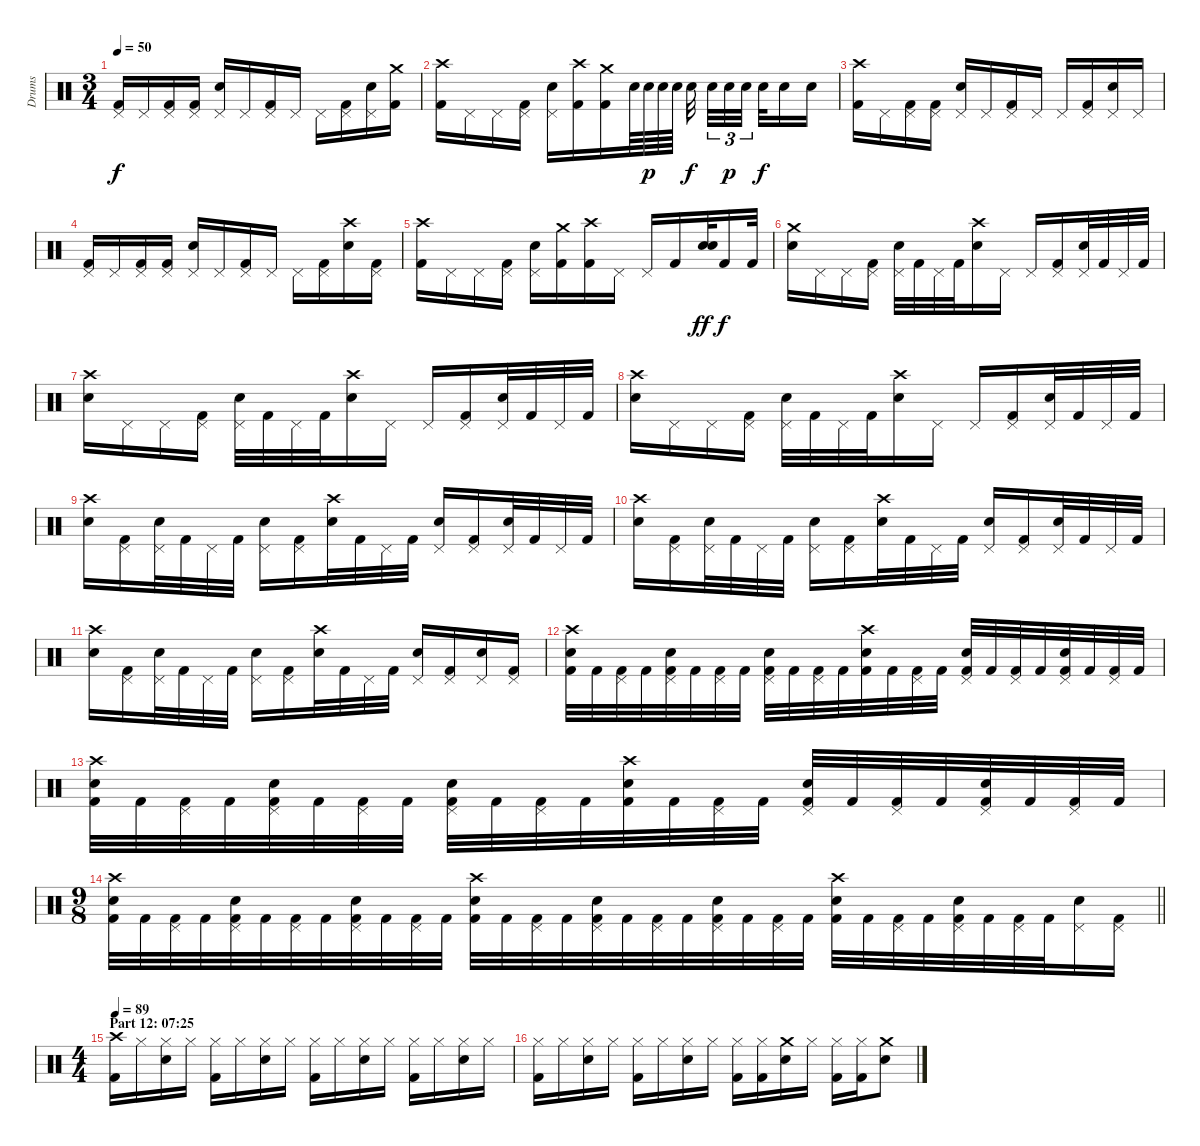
\track ("Drums" "Drums") {instrument percussion}
\staff {score}
\articulation defaults
\ts (3 4)
\tempo 50
\clef neutral
\ks c
("Pedal Hi-Hat (hit)" "Kick (hit) 2").16{dy f} "Pedal Hi-Hat (hit)".16 ("Pedal Hi-Hat (hit)" "Kick (hit) 2").16 ("Pedal Hi-Hat (hit)" "Kick (hit) 2").16 ("Pedal Hi-Hat (hit)" "Electric Snare (hit)").16 "Pedal Hi-Hat (hit)".16 ("Pedal Hi-Hat (hit)" "Kick (hit) 2").16 "Pedal Hi-Hat (hit)".16 "Pedal Hi-Hat (hit)".16 ("Pedal Hi-Hat (hit)" "Kick (hit) 2").16 ("Pedal Hi-Hat (hit)" "Electric Snare (hit)").16 ("Crash medium (hit)" "Kick (hit) 2").16 |
("Crash high (hit)" "Kick (hit) 2").16 "Pedal Hi-Hat (hit)".16 "Pedal Hi-Hat (hit)".16 ("Pedal Hi-Hat (hit)" "Kick (hit) 2").16 ("Pedal Hi-Hat (hit)" "Electric Snare (hit)").16 ("Crash high (hit)" "Kick (hit) 2").16 ("Crash medium (hit)" "Kick (hit) 2").16 "Electric Snare (hit)".64 "Electric Snare (hit)".64{dy p} "Electric Snare (hit)".64 "Electric Snare (hit)".64 "Electric Snare (hit)".32{dy f beam splitsecondary} "Electric Snare (hit)".32{tu (3 2)} "Electric Snare (hit)".32{tu (3 2) dy p} "Electric Snare (hit)".32{tu (3 2) beam splitsecondary} "Electric Snare (hit)".32{dy f} "Electric Snare (hit)".16 "Electric Snare (hit)".16 |
("Crash high (hit)" "Kick (hit) 2").16 "Pedal Hi-Hat (hit)".16 ("Pedal Hi-Hat (hit)" "Kick (hit) 2").16 ("Pedal Hi-Hat (hit)" "Kick (hit) 2").16 ("Pedal Hi-Hat (hit)" "Electric Snare (hit)").16 "Pedal Hi-Hat (hit)".16 ("Pedal Hi-Hat (hit)" "Kick (hit) 2").16 "Pedal Hi-Hat (hit)".16 "Pedal Hi-Hat (hit)".16 ("Pedal Hi-Hat (hit)" "Kick (hit) 2").16 ("Pedal Hi-Hat (hit)" "Electric Snare (hit)").16 "Pedal Hi-Hat (hit)".16 |
("Pedal Hi-Hat (hit)" "Kick (hit) 2").16 "Pedal Hi-Hat (hit)".16 ("Pedal Hi-Hat (hit)" "Kick (hit) 2").16 ("Pedal Hi-Hat (hit)" "Kick (hit) 2").16 ("Pedal Hi-Hat (hit)" "Electric Snare (hit)").16 "Pedal Hi-Hat (hit)".16 ("Pedal Hi-Hat (hit)" "Kick (hit) 2").16 "Pedal Hi-Hat (hit)".16 "Pedal Hi-Hat (hit)".16 ("Pedal Hi-Hat (hit)" "Kick (hit) 2").16 ("Crash high (hit)" "Electric Snare (hit)").16 ("Pedal Hi-Hat (hit)" "Kick (hit) 2").16 |
("Crash high (hit)" "Kick (hit) 2").16 "Pedal Hi-Hat (hit)".16 "Pedal Hi-Hat (hit)".16 ("Pedal Hi-Hat (hit)" "Kick (hit) 2").16 ("Pedal Hi-Hat (hit)" "Electric Snare (hit)").16 ("Crash medium (hit)" "Kick (hit) 2").16 ("Crash high (hit)" "Kick (hit) 2").16 "Pedal Hi-Hat (hit)".16 "Pedal Hi-Hat (hit)".16 "Kick (hit) 2".16 ("Electric Snare (hit)" "Electric Snare (hit)").32{bd 30 dy ff} "Kick (hit) 2".16{dy f} "Kick (hit) 2".32 |
("Crash medium (hit)" "Electric Snare (hit)").16 "Pedal Hi-Hat (hit)".16 "Pedal Hi-Hat (hit)".16 ("Pedal Hi-Hat (hit)" "Kick (hit) 2").16 ("Pedal Hi-Hat (hit)" "Electric Snare (hit)").32 "Kick (hit) 2".32 "Pedal Hi-Hat (hit)".32 "Kick (hit) 2".32 ("Crash high (hit)" "Electric Snare (hit)").16 "Pedal Hi-Hat (hit)".16 "Pedal Hi-Hat (hit)".16 ("Pedal Hi-Hat (hit)" "Kick (hit) 2").16 ("Pedal Hi-Hat (hit)" "Electric Snare (hit)").32 "Kick (hit) 2".32 "Pedal Hi-Hat (hit)".32 "Kick (hit) 2".32 |
("Crash high (hit)" "Electric Snare (hit)").16 "Pedal Hi-Hat (hit)".16 "Pedal Hi-Hat (hit)".16 ("Pedal Hi-Hat (hit)" "Kick (hit) 2").16 ("Pedal Hi-Hat (hit)" "Electric Snare (hit)").32 "Kick (hit) 2".32 "Pedal Hi-Hat (hit)".32 "Kick (hit) 2".32 ("Crash high (hit)" "Electric Snare (hit)").16 "Pedal Hi-Hat (hit)".16 "Pedal Hi-Hat (hit)".16 ("Pedal Hi-Hat (hit)" "Kick (hit) 2").16 ("Pedal Hi-Hat (hit)" "Electric Snare (hit)").32 "Kick (hit) 2".32 "Pedal Hi-Hat (hit)".32 "Kick (hit) 2".32 |
("Crash high (hit)" "Electric Snare (hit)").16 "Pedal Hi-Hat (hit)".16 "Pedal Hi-Hat (hit)".16 ("Pedal Hi-Hat (hit)" "Kick (hit) 2").16 ("Pedal Hi-Hat (hit)" "Electric Snare (hit)").32 "Kick (hit) 2".32 "Pedal Hi-Hat (hit)".32 "Kick (hit) 2".32 ("Crash high (hit)" "Electric Snare (hit)").16 "Pedal Hi-Hat (hit)".16 "Pedal Hi-Hat (hit)".16 ("Pedal Hi-Hat (hit)" "Kick (hit) 2").16 ("Pedal Hi-Hat (hit)" "Electric Snare (hit)").32 "Kick (hit) 2".32 "Pedal Hi-Hat (hit)".32 "Kick (hit) 2".32 |
("Crash high (hit)" "Electric Snare (hit)").16 ("Pedal Hi-Hat (hit)" "Kick (hit) 2").16 ("Pedal Hi-Hat (hit)" "Electric Snare (hit)").32 "Kick (hit) 2".32 "Pedal Hi-Hat (hit)".32 "Kick (hit) 2".32 ("Pedal Hi-Hat (hit)" "Electric Snare (hit)").16 ("Pedal Hi-Hat (hit)" "Kick (hit) 2").16 ("Crash high (hit)" "Electric Snare (hit)").32 "Kick (hit) 2".32 "Pedal Hi-Hat (hit)".32 "Kick (hit) 2".32 ("Pedal Hi-Hat (hit)" "Electric Snare (hit)").16 ("Pedal Hi-Hat (hit)" "Kick (hit) 2").16 ("Pedal Hi-Hat (hit)" "Electric Snare (hit)").32 "Kick (hit) 2".32 "Pedal Hi-Hat (hit)".32 "Kick (hit) 2".32 |
("Crash high (hit)" "Electric Snare (hit)").16 ("Pedal Hi-Hat (hit)" "Kick (hit) 2").16 ("Pedal Hi-Hat (hit)" "Electric Snare (hit)").32 "Kick (hit) 2".32 "Pedal Hi-Hat (hit)".32 "Kick (hit) 2".32 ("Pedal Hi-Hat (hit)" "Electric Snare (hit)").16 ("Pedal Hi-Hat (hit)" "Kick (hit) 2").16 ("Crash high (hit)" "Electric Snare (hit)").32 "Kick (hit) 2".32 "Pedal Hi-Hat (hit)".32 "Kick (hit) 2".32 ("Pedal Hi-Hat (hit)" "Electric Snare (hit)").16 ("Pedal Hi-Hat (hit)" "Kick (hit) 2").16 ("Pedal Hi-Hat (hit)" "Electric Snare (hit)").32 "Kick (hit) 2".32 "Pedal Hi-Hat (hit)".32 "Kick (hit) 2".32 |
("Crash high (hit)" "Electric Snare (hit)").16 ("Pedal Hi-Hat (hit)" "Kick (hit) 2").16 ("Pedal Hi-Hat (hit)" "Electric Snare (hit)").32 "Kick (hit) 2".32 "Pedal Hi-Hat (hit)".32 "Kick (hit) 2".32 ("Pedal Hi-Hat (hit)" "Electric Snare (hit)").16 ("Pedal Hi-Hat (hit)" "Kick (hit) 2").16 ("Crash high (hit)" "Electric Snare (hit)").32 "Kick (hit) 2".32 "Pedal Hi-Hat (hit)".32 "Kick (hit) 2".32 ("Pedal Hi-Hat (hit)" "Electric Snare (hit)").16 ("Pedal Hi-Hat (hit)" "Kick (hit) 2").16 ("Pedal Hi-Hat (hit)" "Electric Snare (hit)").16 ("Pedal Hi-Hat (hit)" "Kick (hit) 2").16 |
("Crash high (hit)" "Electric Snare (hit)" "Kick (hit) 2").32 "Kick (hit) 2".32 ("Pedal Hi-Hat (hit)" "Kick (hit) 2").32 "Kick (hit) 2".32 ("Pedal Hi-Hat (hit)" "Electric Snare (hit)" "Kick (hit) 2").32 "Kick (hit) 2".32 ("Pedal Hi-Hat (hit)" "Kick (hit) 2").32 "Kick (hit) 2".32 ("Pedal Hi-Hat (hit)" "Electric Snare (hit)" "Kick (hit) 2").32 "Kick (hit) 2".32 ("Pedal Hi-Hat (hit)" "Kick (hit) 2").32 "Kick (hit) 2".32 ("Crash high (hit)" "Electric Snare (hit)" "Kick (hit) 2").32 "Kick (hit) 2".32 ("Pedal Hi-Hat (hit)" "Kick (hit) 2").32 "Kick (hit) 2".32 ("Pedal Hi-Hat (hit)" "Electric Snare (hit)" "Kick (hit) 2").32 "Kick (hit) 2".32 ("Pedal Hi-Hat (hit)" "Kick (hit) 2").32 "Kick (hit) 2".32 ("Pedal Hi-Hat (hit)" "Electric Snare (hit)" "Kick (hit) 2").32 "Kick (hit) 2".32 ("Pedal Hi-Hat (hit)" "Kick (hit) 2").32 "Kick (hit) 2".32 |
("Crash high (hit)" "Electric Snare (hit)" "Kick (hit) 2").32 "Kick (hit) 2".32 ("Pedal Hi-Hat (hit)" "Kick (hit) 2").32 "Kick (hit) 2".32 ("Pedal Hi-Hat (hit)" "Electric Snare (hit)" "Kick (hit) 2").32 "Kick (hit) 2".32 ("Pedal Hi-Hat (hit)" "Kick (hit) 2").32 "Kick (hit) 2".32 ("Pedal Hi-Hat (hit)" "Electric Snare (hit)" "Kick (hit) 2").32 "Kick (hit) 2".32 ("Pedal Hi-Hat (hit)" "Kick (hit) 2").32 "Kick (hit) 2".32 ("Crash high (hit)" "Electric Snare (hit)" "Kick (hit) 2").32 "Kick (hit) 2".32 ("Pedal Hi-Hat (hit)" "Kick (hit) 2").32 "Kick (hit) 2".32 ("Pedal Hi-Hat (hit)" "Electric Snare (hit)" "Kick (hit) 2").32 "Kick (hit) 2".32 ("Pedal Hi-Hat (hit)" "Kick (hit) 2").32 "Kick (hit) 2".32 ("Pedal Hi-Hat (hit)" "Electric Snare (hit)" "Kick (hit) 2").32 "Kick (hit) 2".32 ("Pedal Hi-Hat (hit)" "Kick (hit) 2").32 "Kick (hit) 2".32 |
\ts (9 8)
\barLineRight lightlight
("Crash high (hit)" "Electric Snare (hit)" "Kick (hit) 2").32 "Kick (hit) 2".32 ("Pedal Hi-Hat (hit)" "Kick (hit) 2").32 "Kick (hit) 2".32 ("Pedal Hi-Hat (hit)" "Electric Snare (hit)" "Kick (hit) 2").32 "Kick (hit) 2".32 ("Pedal Hi-Hat (hit)" "Kick (hit) 2").32 "Kick (hit) 2".32 ("Pedal Hi-Hat (hit)" "Electric Snare (hit)" "Kick (hit) 2").32 "Kick (hit) 2".32 ("Pedal Hi-Hat (hit)" "Kick (hit) 2").32 "Kick (hit) 2".32 ("Crash high (hit)" "Electric Snare (hit)" "Kick (hit) 2").32 "Kick (hit) 2".32 ("Pedal Hi-Hat (hit)" "Kick (hit) 2").32 "Kick (hit) 2".32 ("Pedal Hi-Hat (hit)" "Electric Snare (hit)" "Kick (hit) 2").32 "Kick (hit) 2".32 ("Pedal Hi-Hat (hit)" "Kick (hit) 2").32 "Kick (hit) 2".32 ("Pedal Hi-Hat (hit)" "Electric Snare (hit)" "Kick (hit) 2").32 "Kick (hit) 2".32 ("Pedal Hi-Hat (hit)" "Kick (hit) 2").32 "Kick (hit) 2".32 ("Crash high (hit)" "Electric Snare (hit)" "Kick (hit) 2").32 "Kick (hit) 2".32 ("Pedal Hi-Hat (hit)" "Kick (hit) 2").32 "Kick (hit) 2".32 ("Pedal Hi-Hat (hit)" "Electric Snare (hit)" "Kick (hit) 2").32 "Kick (hit) 2".32 ("Pedal Hi-Hat (hit)" "Kick (hit) 2").32 "Kick (hit) 2".32 ("Pedal Hi-Hat (hit)" "Electric Snare (hit)").16 ("Pedal Hi-Hat (hit)" "Kick (hit) 2").16 |
\ts (4 4)
\section ("" "Part 12: 07:25")
\tempo 89
("Crash high (hit)" "Kick (hit) 2").16 "Hi-Hat (closed)".16 ("Hi-Hat (closed)" "Electric Snare (hit)").16 "Hi-Hat (closed)".16 ("Hi-Hat (closed)" "Kick (hit) 2").16 "Hi-Hat (closed)".16 ("Hi-Hat (closed)" "Electric Snare (hit)").16 "Hi-Hat (closed)".16 ("Hi-Hat (closed)" "Kick (hit) 2").16 "Hi-Hat (closed)".16 ("Hi-Hat (closed)" "Electric Snare (hit)").16 "Hi-Hat (closed)".16 ("Hi-Hat (closed)" "Kick (hit) 2").16 "Hi-Hat (closed)".16 ("Hi-Hat (closed)" "Electric Snare (hit)").16 "Hi-Hat (closed)".16 |
("Hi-Hat (closed)" "Kick (hit) 2").16 "Hi-Hat (closed)".16 ("Hi-Hat (closed)" "Electric Snare (hit)").16 "Hi-Hat (closed)".16 ("Hi-Hat (closed)" "Kick (hit) 2").16 "Hi-Hat (closed)".16 ("Hi-Hat (closed)" "Electric Snare (hit)").16 "Hi-Hat (closed)".16 ("Hi-Hat (closed)" "Kick (hit) 2").16 ("Hi-Hat (closed)" "Kick (hit) 2").16 ("Crash medium (hit)" "Electric Snare (hit)").16 "Hi-Hat (closed)".16 ("Hi-Hat (closed)" "Kick (hit) 2").16 ("Hi-Hat (closed)" "Kick (hit) 2").16 ("Crash medium (hit)" "Electric Snare (hit)").8
